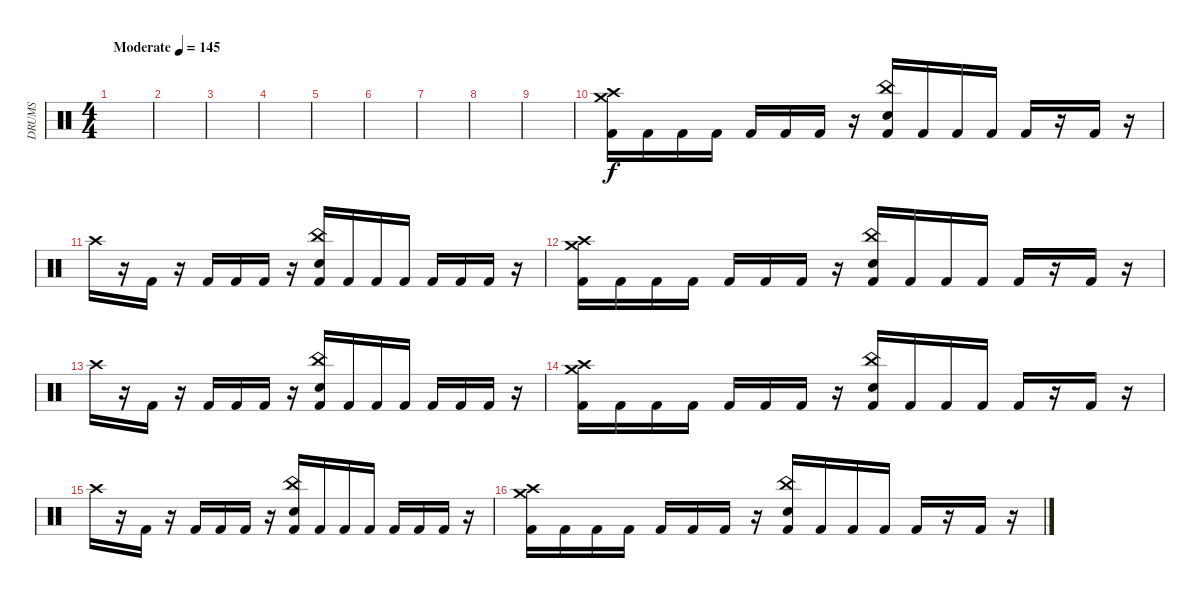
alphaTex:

\track ("DRUMS" "DRUMS") {instrument percussion}
\staff {score}
\articulation defaults
\ts (4 4)
\tempo (145 "Moderate")
\clef neutral
\ks c
|
|
|
|
|
|
|
|
|
("Crash medium (hit)" "Crash high (hit)" "Kick (hit) 2").16 "Kick (hit) 2".16 "Kick (hit) 2".16 "Kick (hit) 2".16 "Kick (hit) 2".16 "Kick (hit) 2".16 "Kick (hit) 2".16 r.16 ("China (hit)" "Electric Snare (hit)" "Kick (hit) 2").16 "Kick (hit) 2".16 "Kick (hit) 2".16 "Kick (hit) 2".16 "Kick (hit) 2".16 r.16 "Kick (hit) 2".16 r.16 |
"Crash high (hit)".16 r.16 "Kick (hit) 2".16 r.16 "Kick (hit) 2".16 "Kick (hit) 2".16 "Kick (hit) 2".16 r.16 ("China (hit)" "Electric Snare (hit)" "Kick (hit) 2").16 "Kick (hit) 2".16 "Kick (hit) 2".16 "Kick (hit) 2".16 "Kick (hit) 2".16 "Kick (hit) 2".16 "Kick (hit) 2".16 r.16 |
("Crash medium (hit)" "Crash high (hit)" "Kick (hit) 2").16 "Kick (hit) 2".16 "Kick (hit) 2".16 "Kick (hit) 2".16 "Kick (hit) 2".16 "Kick (hit) 2".16 "Kick (hit) 2".16 r.16 ("China (hit)" "Electric Snare (hit)" "Kick (hit) 2").16 "Kick (hit) 2".16 "Kick (hit) 2".16 "Kick (hit) 2".16 "Kick (hit) 2".16 r.16 "Kick (hit) 2".16 r.16 |
"Crash high (hit)".16 r.16 "Kick (hit) 2".16 r.16 "Kick (hit) 2".16 "Kick (hit) 2".16 "Kick (hit) 2".16 r.16 ("China (hit)" "Electric Snare (hit)" "Kick (hit) 2").16 "Kick (hit) 2".16 "Kick (hit) 2".16 "Kick (hit) 2".16 "Kick (hit) 2".16 "Kick (hit) 2".16 "Kick (hit) 2".16 r.16 |
("Crash medium (hit)" "Crash high (hit)" "Kick (hit) 2").16 "Kick (hit) 2".16 "Kick (hit) 2".16 "Kick (hit) 2".16 "Kick (hit) 2".16 "Kick (hit) 2".16 "Kick (hit) 2".16 r.16 ("China (hit)" "Electric Snare (hit)" "Kick (hit) 2").16 "Kick (hit) 2".16 "Kick (hit) 2".16 "Kick (hit) 2".16 "Kick (hit) 2".16 r.16 "Kick (hit) 2".16 r.16 |
"Crash high (hit)".16 r.16 "Kick (hit) 2".16 r.16 "Kick (hit) 2".16 "Kick (hit) 2".16 "Kick (hit) 2".16 r.16 ("China (hit)" "Electric Snare (hit)" "Kick (hit) 2").16 "Kick (hit) 2".16 "Kick (hit) 2".16 "Kick (hit) 2".16 "Kick (hit) 2".16 "Kick (hit) 2".16 "Kick (hit) 2".16 r.16 |
("Crash medium (hit)" "Crash high (hit)" "Kick (hit) 2").16 "Kick (hit) 2".16 "Kick (hit) 2".16 "Kick (hit) 2".16 "Kick (hit) 2".16 "Kick (hit) 2".16 "Kick (hit) 2".16 r.16 ("China (hit)" "Electric Snare (hit)" "Kick (hit) 2").16 "Kick (hit) 2".16 "Kick (hit) 2".16 "Kick (hit) 2".16 "Kick (hit) 2".16 r.16 "Kick (hit) 2".16 r.16
